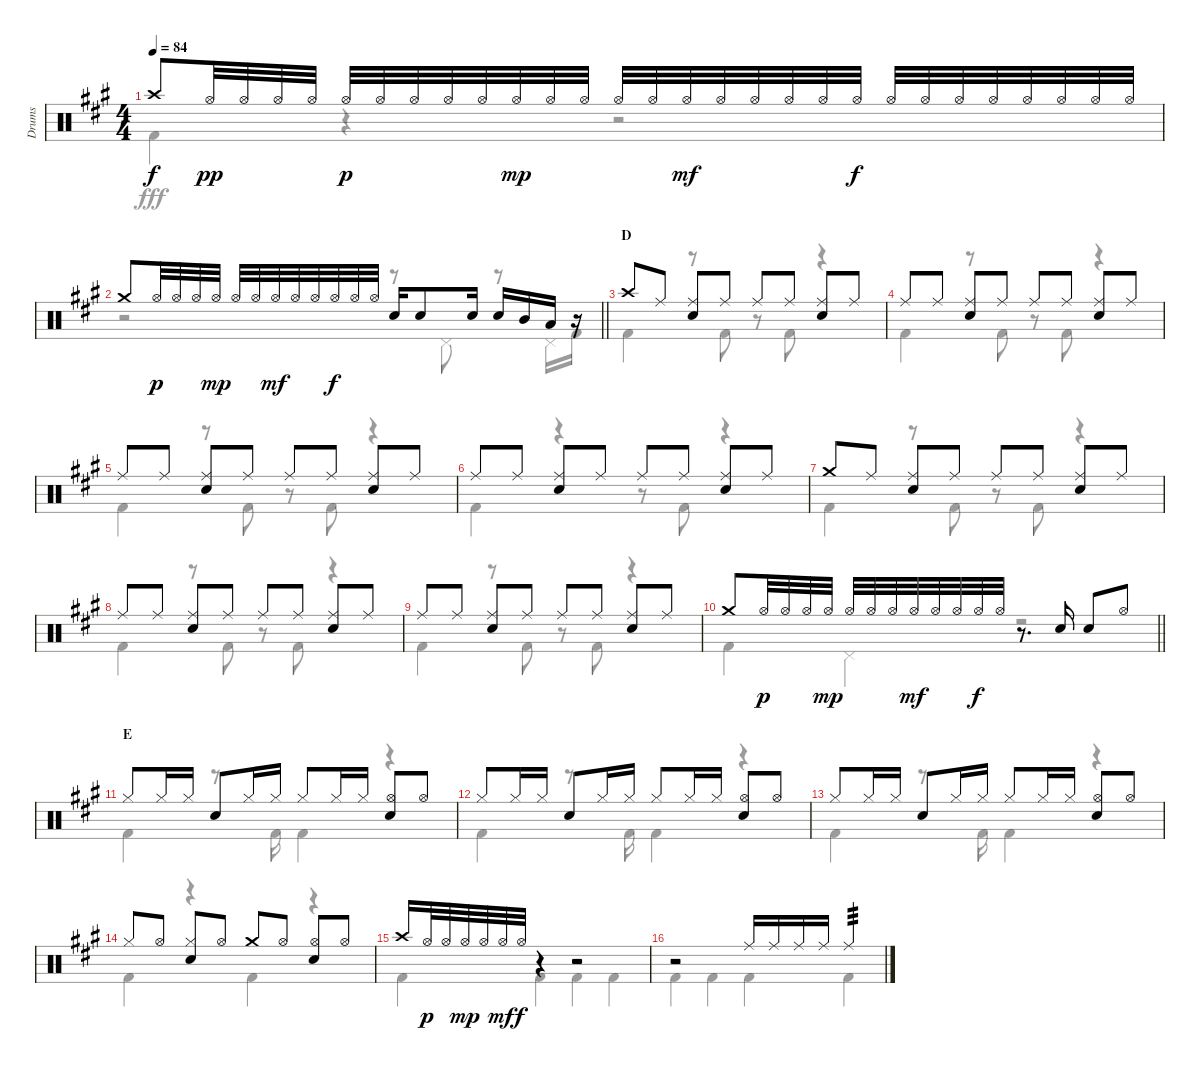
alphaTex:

\track ("Drums" "Drums") {instrument percussion}
\staff {score}
\articulation defaults
\voice
\ts (4 4)
\tempo 84
\clef neutral
\ks a "Crash high (hit)".8{dy f} "Hi-Hat (open)".32{dy pp} "Hi-Hat (open)".32 "Hi-Hat (open)".32 "Hi-Hat (open)".32 "Hi-Hat (open)".32{dy p} "Hi-Hat (open)".32 "Hi-Hat (open)".32 "Hi-Hat (open)".32 "Hi-Hat (open)".32 "Hi-Hat (open)".32{dy mp} "Hi-Hat (open)".32 "Hi-Hat (open)".32 "Hi-Hat (open)".32 "Hi-Hat (open)".32 "Hi-Hat (open)".32{dy mf} "Hi-Hat (open)".32 "Hi-Hat (open)".32 "Hi-Hat (open)".32 "Hi-Hat (open)".32 "Hi-Hat (open)".32{dy f} "Hi-Hat (open)".32 "Hi-Hat (open)".32 "Hi-Hat (open)".32 "Hi-Hat (open)".32 "Hi-Hat (open)".32 "Hi-Hat (open)".32 "Hi-Hat (open)".32 "Hi-Hat (open)".32
|
\barLineRight lightlight "Crash medium (hit)".8 "Hi-Hat (open)".32{dy p} "Hi-Hat (open)".32 "Hi-Hat (open)".32 "Hi-Hat (open)".32{dy mp} "Hi-Hat (open)".32 "Hi-Hat (open)".32 "Hi-Hat (open)".32{dy mf} "Hi-Hat (open)".32 "Hi-Hat (open)".32 "Hi-Hat (open)".32{dy f} "Hi-Hat (open)".32 "Hi-Hat (open)".32 "Snare (hit) 2".16 "Snare (hit) 2".8 "Snare (hit) 2".16 "Snare (hit) 2".16 "Mid Tom (hit)".16 "Low Tom (hit)".16
r.16 |
\section ("" "D")
"Crash high (hit)".8 "Ride (middle)".8 ("Ride (middle)" "Snare (hit) 2").8 "Ride (middle)".8 "Ride (middle)".8 "Ride (middle)".8 ("Ride (middle)" "Snare (hit) 2").8 "Ride (middle)".8 |
"Ride (middle)".8 "Ride (middle)".8 ("Ride (middle)" "Snare (hit) 2").8 "Ride (middle)".8 "Ride (middle)".8 "Ride (middle)".8 ("Ride (middle)" "Snare (hit) 2").8 "Ride (middle)".8 |
"Ride (middle)".8 "Ride (middle)".8 ("Ride (middle)" "Snare (hit) 2").8 "Ride (middle)".8 "Ride (middle)".8 "Ride (middle)".8 ("Ride (middle)" "Snare (hit) 2").8 "Ride (middle)".8 |
"Ride (middle)".8 "Ride (middle)".8 ("Ride (middle)" "Snare (hit) 2").8 "Ride (middle)".8 "Ride (middle)".8 "Ride (middle)".8 ("Ride (middle)" "Snare (hit) 2").8 "Ride (middle)".8 |
"Crash medium (hit)".8 "Ride (middle)".8 ("Ride (middle)" "Snare (hit) 2").8 "Ride (middle)".8 "Ride (middle)".8 "Ride (middle)".8 ("Ride (middle)" "Snare (hit) 2").8 "Ride (middle)".8 |
"Ride (middle)".8 "Ride (middle)".8 ("Ride (middle)" "Snare (hit) 2").8 "Ride (middle)".8 "Ride (middle)".8 "Ride (middle)".8 ("Ride (middle)" "Snare (hit) 2").8 "Ride (middle)".8 |
"Ride (middle)".8 "Ride (middle)".8 ("Ride (middle)" "Snare (hit) 2").8 "Ride (middle)".8 "Ride (middle)".8 "Ride (middle)".8 ("Ride (middle)" "Snare (hit) 2").8 "Ride (middle)".8 |
\barLineRight lightlight "Crash medium (hit)".8 "Hi-Hat (open)".32{dy p} "Hi-Hat (open)".32 "Hi-Hat (open)".32 "Hi-Hat (open)".32{dy mp} "Hi-Hat (open)".32 "Hi-Hat (open)".32 "Hi-Hat (open)".32 "Hi-Hat (open)".32{dy mf} "Hi-Hat (open)".32 "Hi-Hat (open)".32 "Hi-Hat (open)".32{dy f} "Hi-Hat (open)".32
r.8{d} "Snare (hit) 2".16 "Snare (hit) 2".8 "Hi-Hat (open)".8 |
\section ("" "E")
"Hi-Hat (closed)".8 "Hi-Hat (closed)".16 "Hi-Hat (closed)".16 "Snare (hit) 2".8 "Hi-Hat (closed)".16 "Hi-Hat (closed)".16 "Hi-Hat (closed)".8 "Hi-Hat (closed)".16 "Hi-Hat (closed)".16 ("Hi-Hat (open)" "Snare (hit) 2").8 "Hi-Hat (open)".8 |
"Hi-Hat (closed)".8 "Hi-Hat (closed)".16 "Hi-Hat (closed)".16 "Snare (hit) 2".8 "Hi-Hat (closed)".16 "Hi-Hat (closed)".16 "Hi-Hat (closed)".8 "Hi-Hat (closed)".16 "Hi-Hat (closed)".16 ("Hi-Hat (open)" "Snare (hit) 2").8 "Hi-Hat (open)".8 |
"Hi-Hat (closed)".8 "Hi-Hat (closed)".16 "Hi-Hat (closed)".16 "Snare (hit) 2".8 "Hi-Hat (closed)".16 "Hi-Hat (closed)".16 "Hi-Hat (closed)".8 "Hi-Hat (closed)".16 "Hi-Hat (closed)".16 ("Hi-Hat (open)" "Snare (hit) 2").8 "Hi-Hat (open)".8 |
"Hi-Hat (closed)".8 "Hi-Hat (open)".8 ("Hi-Hat (closed)" "Snare (hit) 2").8 "Hi-Hat (open)".8 "Crash medium (hit)".8 "Hi-Hat (open)".8 ("Hi-Hat (open)" "Snare (hit) 2").8 "Hi-Hat (open)".8 |
"Crash high (hit)".16 "Hi-Hat (open)".32{dy p} "Hi-Hat (open)".32 "Hi-Hat (open)".32{dy mp} "Hi-Hat (open)".32 "Hi-Hat (open)".32{dy mf} "Hi-Hat (open)".32{dy f} r.4 r.2 |
r.2 "Ride (middle)".16 "Ride (middle)".16 "Ride (middle)".16 "Ride (middle)".16 "Ride (middle)".4{tp 3}
\voice
\clef neutral
\ottava regular
\simile none
\ks a "Kick (hit) 2".4{dy fff}
r.4 r.2 |
\barLineRight lightlight
r.2 r.8 "Pedal Hi-Hat (hit)".8 r.8 "Pedal Hi-Hat (hit)".16 "Kick (hit) 2".16 |
"Kick (hit) 2".4 r.8 "Kick (hit) 2".8 r.8 "Kick (hit) 2".8 r.4 |
"Kick (hit) 2".4 r.8 "Kick (hit) 2".8 r.8 "Kick (hit) 2".8 r.4 |
"Kick (hit) 2".4 r.8 "Kick (hit) 2".8 r.8 "Kick (hit) 2".8 r.4 |
"Kick (hit) 2".4 r.4 r.8 "Kick (hit) 2".8 r.4 |
"Kick (hit) 2".4 r.8 "Kick (hit) 2".8 r.8 "Kick (hit) 2".8 r.4 |
"Kick (hit) 2".4 r.8 "Kick (hit) 2".8 r.8 "Kick (hit) 2".8 r.4 |
"Kick (hit) 2".4 r.8 "Kick (hit) 2".8 r.8 "Kick (hit) 2".8 r.4 |
\barLineRight lightlight "Kick (hit) 2".4 "Pedal Hi-Hat (hit)".4
r.2 |
"Kick (hit) 2".4 r.8{d} "Kick (hit) 2".16 "Kick (hit) 2".4 r.4 |
"Kick (hit) 2".4 r.8{d} "Kick (hit) 2".16 "Kick (hit) 2".4 r.4 |
"Kick (hit) 2".4 r.8{d} "Kick (hit) 2".16 "Kick (hit) 2".4 r.4 |
"Kick (hit) 2".4 r.4 "Kick (hit) 2".4 r.4 |
"Kick (hit) 2".4 "Kick (hit) 2".4 "Kick (hit) 2".4 "Kick (hit) 2".4 |
"Kick (hit) 2".4 "Kick (hit) 2".4 "Kick (hit) 2".4 "Kick (hit) 2".4
